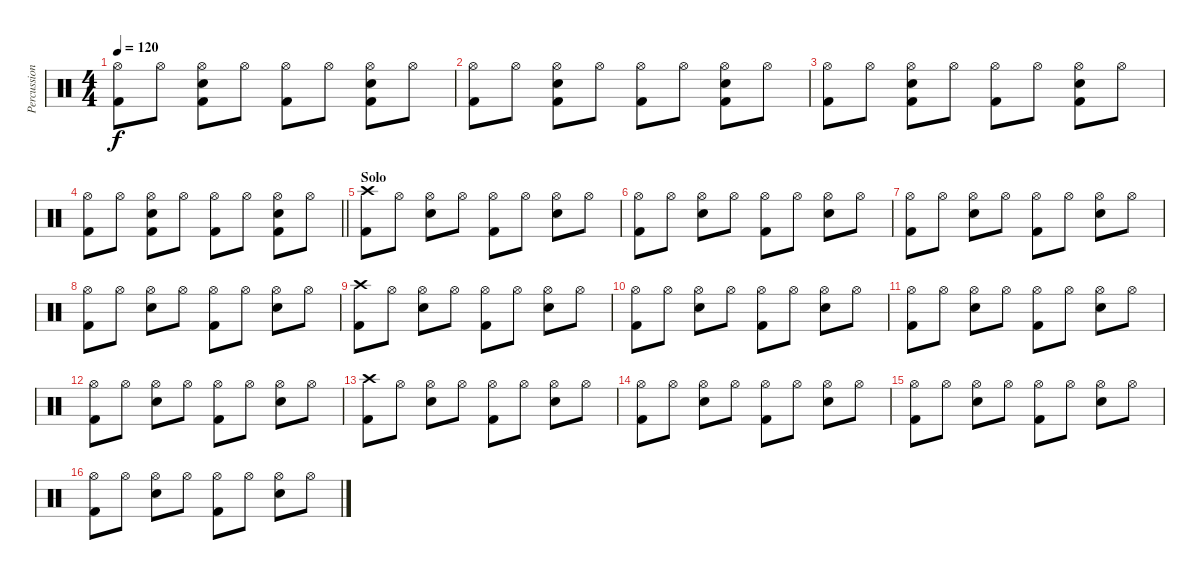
\track ("Percussion" "Percussion") {instrument percussion}
\staff {score}
\articulation defaults
\ts (4 4)
\tempo 120
\clef neutral
\ks c
("Hi-Hat (open)" "Kick (hit) 2").8{dy f} "Hi-Hat (open)".8 ("Hi-Hat (open)" "Snare (hit) 2" "Kick (hit) 2").8 "Hi-Hat (open)".8 ("Hi-Hat (open)" "Kick (hit) 2").8 "Hi-Hat (open)".8 ("Hi-Hat (open)" "Snare (hit) 2" "Kick (hit) 2").8 "Hi-Hat (open)".8 |
("Hi-Hat (open)" "Kick (hit) 2").8 "Hi-Hat (open)".8 ("Hi-Hat (open)" "Snare (hit) 2" "Kick (hit) 2").8 "Hi-Hat (open)".8 ("Hi-Hat (open)" "Kick (hit) 2").8 "Hi-Hat (open)".8 ("Hi-Hat (open)" "Snare (hit) 2" "Kick (hit) 2").8 "Hi-Hat (open)".8 |
("Hi-Hat (open)" "Kick (hit) 2").8 "Hi-Hat (open)".8 ("Hi-Hat (open)" "Snare (hit) 2" "Kick (hit) 2").8 "Hi-Hat (open)".8 ("Hi-Hat (open)" "Kick (hit) 2").8 "Hi-Hat (open)".8 ("Hi-Hat (open)" "Snare (hit) 2" "Kick (hit) 2").8 "Hi-Hat (open)".8 |
\barLineRight lightlight
("Hi-Hat (open)" "Kick (hit) 2").8 "Hi-Hat (open)".8 ("Hi-Hat (open)" "Snare (hit) 2" "Kick (hit) 2").8 "Hi-Hat (open)".8 ("Hi-Hat (open)" "Kick (hit) 2").8 "Hi-Hat (open)".8 ("Hi-Hat (open)" "Snare (hit) 2" "Kick (hit) 2").8 "Hi-Hat (open)".8 |
\section ("" "Solo")
("Crash high (hit)" "Kick (hit) 2").8 "Hi-Hat (open)".8 ("Hi-Hat (open)" "Snare (hit) 2").8 "Hi-Hat (open)".8 ("Hi-Hat (open)" "Kick (hit) 2").8 "Hi-Hat (open)".8 ("Hi-Hat (open)" "Snare (hit) 2").8 "Hi-Hat (open)".8 |
("Hi-Hat (open)" "Kick (hit) 2").8 "Hi-Hat (open)".8 ("Hi-Hat (open)" "Snare (hit) 2").8 "Hi-Hat (open)".8 ("Hi-Hat (open)" "Kick (hit) 2").8 "Hi-Hat (open)".8 ("Hi-Hat (open)" "Snare (hit) 2").8 "Hi-Hat (open)".8 |
("Hi-Hat (open)" "Kick (hit) 2").8 "Hi-Hat (open)".8 ("Hi-Hat (open)" "Snare (hit) 2").8 "Hi-Hat (open)".8 ("Hi-Hat (open)" "Kick (hit) 2").8 "Hi-Hat (open)".8 ("Hi-Hat (open)" "Snare (hit) 2").8 "Hi-Hat (open)".8 |
("Hi-Hat (open)" "Kick (hit) 2").8 "Hi-Hat (open)".8 ("Hi-Hat (open)" "Snare (hit) 2").8 "Hi-Hat (open)".8 ("Hi-Hat (open)" "Kick (hit) 2").8 "Hi-Hat (open)".8 ("Hi-Hat (open)" "Snare (hit) 2").8 "Hi-Hat (open)".8 |
("Crash high (hit)" "Kick (hit) 2").8 "Hi-Hat (open)".8 ("Hi-Hat (open)" "Snare (hit) 2").8 "Hi-Hat (open)".8 ("Hi-Hat (open)" "Kick (hit) 2").8 "Hi-Hat (open)".8 ("Hi-Hat (open)" "Snare (hit) 2").8 "Hi-Hat (open)".8 |
("Hi-Hat (open)" "Kick (hit) 2").8 "Hi-Hat (open)".8 ("Hi-Hat (open)" "Snare (hit) 2").8 "Hi-Hat (open)".8 ("Hi-Hat (open)" "Kick (hit) 2").8 "Hi-Hat (open)".8 ("Hi-Hat (open)" "Snare (hit) 2").8 "Hi-Hat (open)".8 |
("Hi-Hat (open)" "Kick (hit) 2").8 "Hi-Hat (open)".8 ("Hi-Hat (open)" "Snare (hit) 2").8 "Hi-Hat (open)".8 ("Hi-Hat (open)" "Kick (hit) 2").8 "Hi-Hat (open)".8 ("Hi-Hat (open)" "Snare (hit) 2").8 "Hi-Hat (open)".8 |
("Hi-Hat (open)" "Kick (hit) 2").8 "Hi-Hat (open)".8 ("Hi-Hat (open)" "Snare (hit) 2").8 "Hi-Hat (open)".8 ("Hi-Hat (open)" "Kick (hit) 2").8 "Hi-Hat (open)".8 ("Hi-Hat (open)" "Snare (hit) 2").8 "Hi-Hat (open)".8 |
("Crash high (hit)" "Kick (hit) 2").8 "Hi-Hat (open)".8 ("Hi-Hat (open)" "Snare (hit) 2").8 "Hi-Hat (open)".8 ("Hi-Hat (open)" "Kick (hit) 2").8 "Hi-Hat (open)".8 ("Hi-Hat (open)" "Snare (hit) 2").8 "Hi-Hat (open)".8 |
("Hi-Hat (open)" "Kick (hit) 2").8 "Hi-Hat (open)".8 ("Hi-Hat (open)" "Snare (hit) 2").8 "Hi-Hat (open)".8 ("Hi-Hat (open)" "Kick (hit) 2").8 "Hi-Hat (open)".8 ("Hi-Hat (open)" "Snare (hit) 2").8 "Hi-Hat (open)".8 |
("Hi-Hat (open)" "Kick (hit) 2").8 "Hi-Hat (open)".8 ("Hi-Hat (open)" "Snare (hit) 2").8 "Hi-Hat (open)".8 ("Hi-Hat (open)" "Kick (hit) 2").8 "Hi-Hat (open)".8 ("Hi-Hat (open)" "Snare (hit) 2").8 "Hi-Hat (open)".8 |
("Hi-Hat (open)" "Kick (hit) 2").8 "Hi-Hat (open)".8 ("Hi-Hat (open)" "Snare (hit) 2").8 "Hi-Hat (open)".8 ("Hi-Hat (open)" "Kick (hit) 2").8 "Hi-Hat (open)".8 ("Hi-Hat (open)" "Snare (hit) 2").8 "Hi-Hat (open)".8
